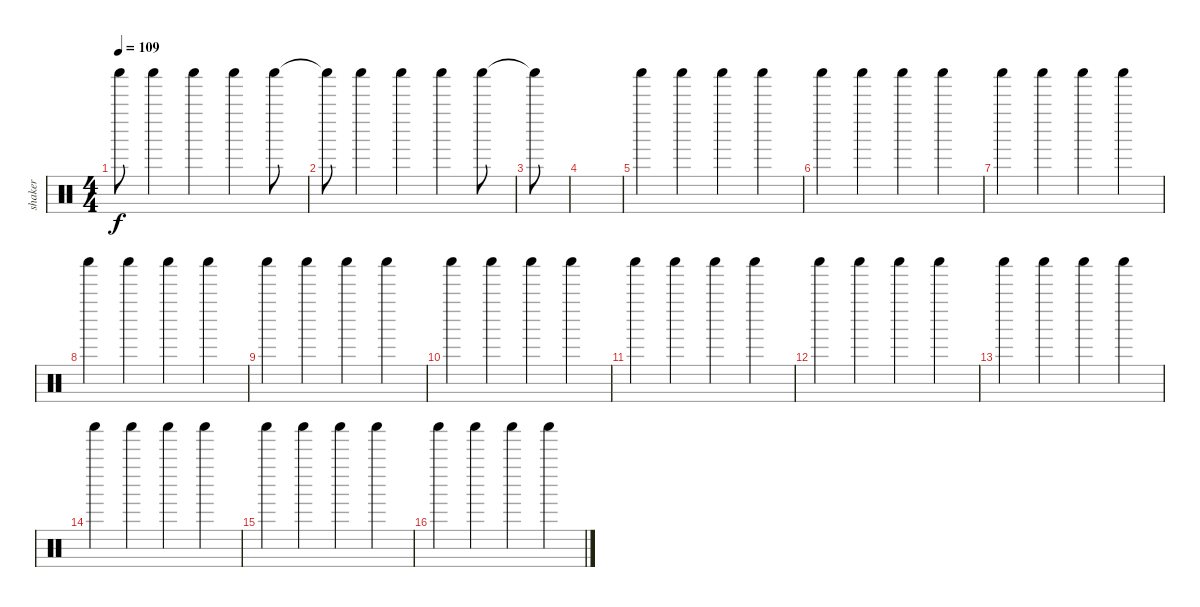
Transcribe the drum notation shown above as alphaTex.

\track ("shaker" "shaker") {instrument percussion}
\staff {score}
\articulation defaults
\ts (4 4)
\tempo 109
\clef neutral
\ks c "Shaker (hit)"{t}.8{dy f} "Shaker (hit)".4 "Shaker (hit)".4 "Shaker (hit)".4 "Shaker (hit)".8
|
"Shaker (hit)"{t}.8 "Shaker (hit)".4 "Shaker (hit)".4 "Shaker (hit)".4 "Shaker (hit)".8 |
"Shaker (hit)"{t}.8 |
|
"Shaker (hit)".4 "Shaker (hit)".4 "Shaker (hit)".4 "Shaker (hit)".4 |
"Shaker (hit)".4 "Shaker (hit)".4 "Shaker (hit)".4 "Shaker (hit)".4 |
"Shaker (hit)".4 "Shaker (hit)".4 "Shaker (hit)".4 "Shaker (hit)".4 |
"Shaker (hit)".4 "Shaker (hit)".4 "Shaker (hit)".4 "Shaker (hit)".4 |
"Shaker (hit)".4 "Shaker (hit)".4 "Shaker (hit)".4 "Shaker (hit)".4 |
"Shaker (hit)".4 "Shaker (hit)".4 "Shaker (hit)".4 "Shaker (hit)".4 |
"Shaker (hit)".4 "Shaker (hit)".4 "Shaker (hit)".4 "Shaker (hit)".4 |
"Shaker (hit)".4 "Shaker (hit)".4 "Shaker (hit)".4 "Shaker (hit)".4 |
"Shaker (hit)".4 "Shaker (hit)".4 "Shaker (hit)".4 "Shaker (hit)".4 |
"Shaker (hit)".4 "Shaker (hit)".4 "Shaker (hit)".4 "Shaker (hit)".4 |
"Shaker (hit)".4 "Shaker (hit)".4 "Shaker (hit)".4 "Shaker (hit)".4 |
"Shaker (hit)".4 "Shaker (hit)".4 "Shaker (hit)".4 "Shaker (hit)".4
